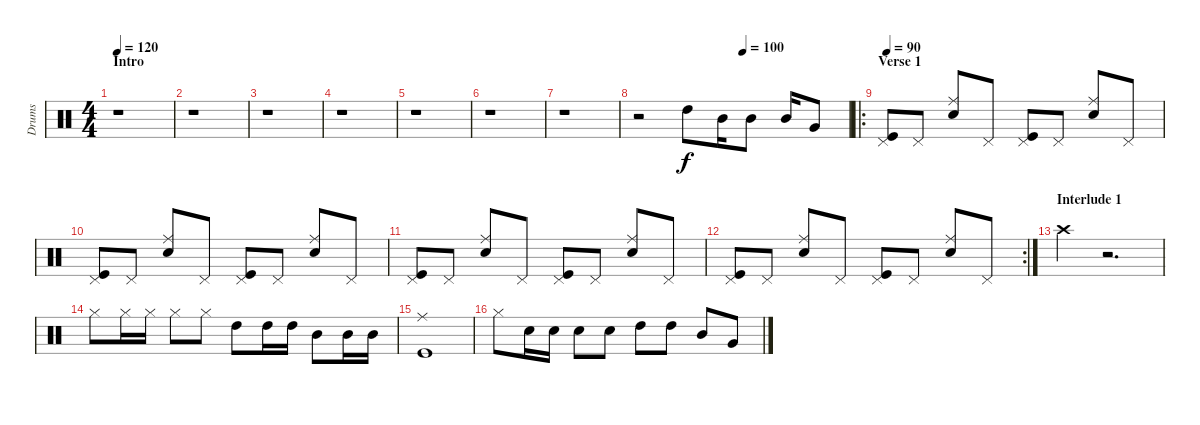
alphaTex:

\track ("Drums" "Drums") {instrument percussion}
\staff {score}
\articulation defaults
\ts (4 4)
\section ("" "Intro")
\tempo 120
\clef neutral
\ks c
r.1{dy f} |
r.1 |
r.1 |
r.1 |
r.1 |
r.1 |
r.1 |
\tempo (100 0.5)
r.2 "High Tom (hit)".8 "Mid Tom (hit)".16 "Mid Tom (hit)".8 "Mid Tom (hit)".16 "Very Low Tom (hit)".8 |
\ro
\section ("" "Verse 1")
\tempo 90
("Pedal Hi-Hat (hit)" "Kick (hit)").8 "Pedal Hi-Hat (hit)".8 ("Ride (middle)" "Electric Snare (hit)").8 "Pedal Hi-Hat (hit)".8 ("Pedal Hi-Hat (hit)" "Kick (hit)").8 "Pedal Hi-Hat (hit)".8 ("Ride (middle)" "Electric Snare (hit)").8 "Pedal Hi-Hat (hit)".8 |
("Pedal Hi-Hat (hit)" "Kick (hit)").8 "Pedal Hi-Hat (hit)".8 ("Ride (middle)" "Electric Snare (hit)").8 "Pedal Hi-Hat (hit)".8 ("Pedal Hi-Hat (hit)" "Kick (hit)").8 "Pedal Hi-Hat (hit)".8 ("Ride (middle)" "Electric Snare (hit)").8 "Pedal Hi-Hat (hit)".8 |
("Pedal Hi-Hat (hit)" "Kick (hit)").8 "Pedal Hi-Hat (hit)".8 ("Ride (middle)" "Electric Snare (hit)").8 "Pedal Hi-Hat (hit)".8 ("Pedal Hi-Hat (hit)" "Kick (hit)").8 "Pedal Hi-Hat (hit)".8 ("Ride (middle)" "Electric Snare (hit)").8 "Pedal Hi-Hat (hit)".8 |
\rc 2
("Pedal Hi-Hat (hit)" "Kick (hit)").8 "Pedal Hi-Hat (hit)".8 ("Ride (middle)" "Electric Snare (hit)").8 "Pedal Hi-Hat (hit)".8 ("Pedal Hi-Hat (hit)" "Kick (hit)").8 "Pedal Hi-Hat (hit)".8 ("Ride (middle)" "Electric Snare (hit)").8 "Pedal Hi-Hat (hit)".8 |
\section ("" "Interlude 1")
"Crash high (hit)".4 r.2{d} |
"Hi-Hat (closed)".8 "Hi-Hat (closed)".16 "Hi-Hat (closed)".16 "Hi-Hat (closed)".8 "Hi-Hat (closed)".8 "High Tom (hit)".8 "High Tom (hit)".16 "High Tom (hit)".16 "Mid Tom (hit)".8 "Mid Tom (hit)".16 "Mid Tom (hit)".16 |
("Ride (middle)" "Kick (hit)").1 |
"Hi-Hat (closed)".8 "Electric Snare (hit)".16 "Electric Snare (hit)".16 "Electric Snare (hit)".8 "Electric Snare (hit)".8 "High Tom (hit)".8 "High Tom (hit)".8 "Mid Tom (hit)".8 "Very Low Tom (hit)".8
